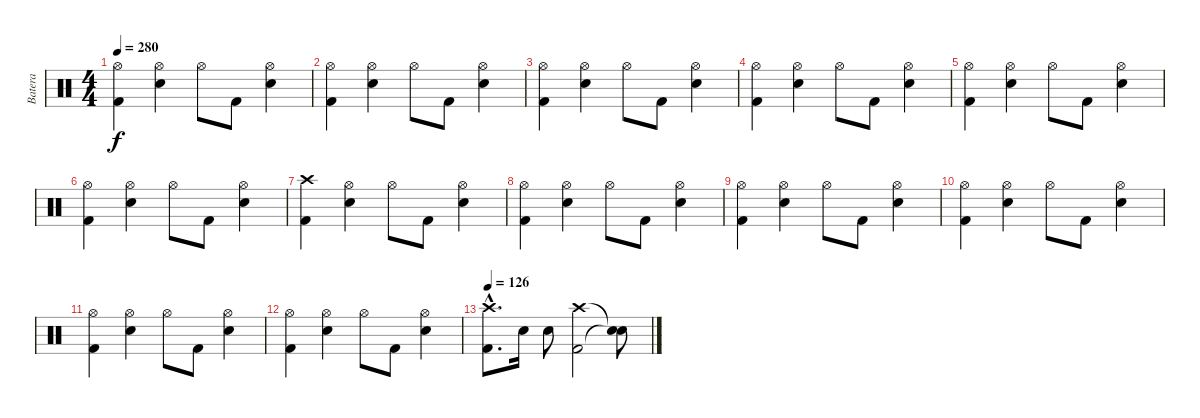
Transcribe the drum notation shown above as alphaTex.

\track ("Batera" "Batera") {instrument percussion}
\staff {score}
\articulation defaults
\ts (4 4)
\tempo 280
\clef neutral
\ks c
("Hi-Hat (open)" "Kick (hit) 2").4{dy f} ("Hi-Hat (open)" "Snare (hit) 2").4 "Hi-Hat (open)".8 "Kick (hit) 2".8 ("Hi-Hat (open)" "Snare (hit) 2").4 |
("Hi-Hat (open)" "Kick (hit) 2").4 ("Hi-Hat (open)" "Snare (hit) 2").4 "Hi-Hat (open)".8 "Kick (hit) 2".8 ("Hi-Hat (open)" "Snare (hit) 2").4 |
("Hi-Hat (open)" "Kick (hit) 2").4 ("Hi-Hat (open)" "Snare (hit) 2").4 "Hi-Hat (open)".8 "Kick (hit) 2".8 ("Hi-Hat (open)" "Snare (hit) 2").4 |
("Hi-Hat (open)" "Kick (hit) 2").4 ("Hi-Hat (open)" "Snare (hit) 2").4 "Hi-Hat (open)".8 "Kick (hit) 2".8 ("Hi-Hat (open)" "Snare (hit) 2").4 |
("Hi-Hat (open)" "Kick (hit) 2").4 ("Hi-Hat (open)" "Snare (hit) 2").4 "Hi-Hat (open)".8 "Kick (hit) 2".8 ("Hi-Hat (open)" "Snare (hit) 2").4 |
("Hi-Hat (open)" "Kick (hit) 2").4 ("Hi-Hat (open)" "Snare (hit) 2").4 "Hi-Hat (open)".8 "Kick (hit) 2".8 ("Hi-Hat (open)" "Snare (hit) 2").4 |
("Crash high (hit)" "Kick (hit) 2").4 ("Hi-Hat (open)" "Snare (hit) 2").4 "Hi-Hat (open)".8 "Kick (hit) 2".8 ("Hi-Hat (open)" "Snare (hit) 2").4 |
("Hi-Hat (open)" "Kick (hit) 2").4 ("Hi-Hat (open)" "Snare (hit) 2").4 "Hi-Hat (open)".8 "Kick (hit) 2".8 ("Hi-Hat (open)" "Snare (hit) 2").4 |
("Hi-Hat (open)" "Kick (hit) 2").4 ("Hi-Hat (open)" "Snare (hit) 2").4 "Hi-Hat (open)".8 "Kick (hit) 2".8 ("Hi-Hat (open)" "Snare (hit) 2").4 |
("Hi-Hat (open)" "Kick (hit) 2").4 ("Hi-Hat (open)" "Snare (hit) 2").4 "Hi-Hat (open)".8 "Kick (hit) 2".8 ("Hi-Hat (open)" "Snare (hit) 2").4 |
("Hi-Hat (open)" "Kick (hit) 2").4 ("Hi-Hat (open)" "Snare (hit) 2").4 "Hi-Hat (open)".8 "Kick (hit) 2".8 ("Hi-Hat (open)" "Snare (hit) 2").4 |
("Hi-Hat (open)" "Kick (hit) 2").4 ("Hi-Hat (open)" "Snare (hit) 2").4 "Hi-Hat (open)".8 "Kick (hit) 2".8 ("Hi-Hat (open)" "Snare (hit) 2").4 |
\tempo 126
("Crash high (hit)"{hac} "Kick (hit) 2"{hac}).8{d} "Snare (hit) 2".16 "Snare (hit) 2".8 ("Crash high (hit)" "Kick (hit) 2").2 ("Snare (hit)"{t} "Snare (hit)"{t}).8
